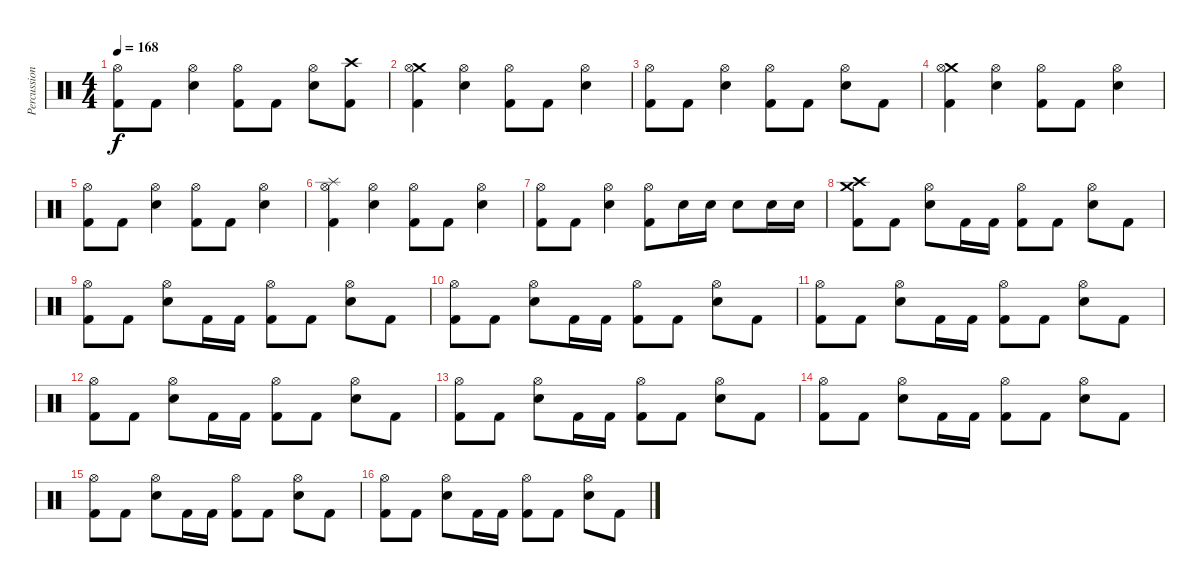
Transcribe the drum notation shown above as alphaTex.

\track ("Percussions" "Percussion") {instrument percussion}
\staff {score}
\articulation defaults
\ts (4 4)
\tempo 168
\clef neutral
\ks c
("Hi-Hat (open)" "Kick (hit) 2").8{dy f} "Kick (hit) 2".8 ("Hi-Hat (open)" "Snare (hit) 2").4 ("Hi-Hat (open)" "Kick (hit) 2").8 "Kick (hit) 2".8 ("Hi-Hat (open)" "Snare (hit) 2").8 ("Crash high (hit)" "Kick (hit) 2").8 |
("Crash medium (hit)" "Hi-Hat (open)" "Kick (hit) 2").4 ("Hi-Hat (open)" "Snare (hit) 2").4 ("Hi-Hat (open)" "Kick (hit) 2").8 "Kick (hit) 2".8 ("Hi-Hat (open)" "Snare (hit) 2").4 |
("Hi-Hat (open)" "Kick (hit) 2").8 "Kick (hit) 2".8 ("Hi-Hat (open)" "Snare (hit) 2").4 ("Hi-Hat (open)" "Kick (hit) 2").8 "Kick (hit) 2".8 ("Hi-Hat (open)" "Snare (hit) 2").8 "Kick (hit) 2".8 |
("Crash medium (hit)" "Hi-Hat (open)" "Kick (hit) 2").4 ("Hi-Hat (open)" "Snare (hit) 2").4 ("Hi-Hat (open)" "Kick (hit) 2").8 "Kick (hit) 2".8 ("Hi-Hat (open)" "Snare (hit) 2").4 |
("Hi-Hat (open)" "Kick (hit) 2").8 "Kick (hit) 2".8 ("Hi-Hat (open)" "Snare (hit) 2").4 ("Hi-Hat (open)" "Kick (hit) 2").8 "Kick (hit) 2".8 ("Hi-Hat (open)" "Snare (hit) 2").4 |
("Splash (hit)" "Hi-Hat (open)" "Kick (hit) 2").4 ("Hi-Hat (open)" "Snare (hit) 2").4 ("Hi-Hat (open)" "Kick (hit) 2").8 "Kick (hit) 2".8 ("Hi-Hat (open)" "Snare (hit) 2").4 |
("Hi-Hat (open)" "Kick (hit) 2").8 "Kick (hit) 2".8 ("Hi-Hat (open)" "Snare (hit) 2").4 ("Hi-Hat (open)" "Kick (hit) 2").8 "Snare (hit) 2".16 "Snare (hit) 2".16 "Snare (hit) 2".8 "Snare (hit) 2".16 "Snare (hit) 2".16 |
("Crash medium (hit)" "Crash high (hit)" "Kick (hit) 2").8 "Kick (hit) 2".8 ("Hi-Hat (open)" "Snare (hit) 2").8 "Kick (hit) 2".16 "Kick (hit) 2".16 ("Hi-Hat (open)" "Kick (hit) 2").8 "Kick (hit) 2".8 ("Hi-Hat (open)" "Snare (hit) 2").8 "Kick (hit) 2".8 |
("Hi-Hat (open)" "Kick (hit) 2").8 "Kick (hit) 2".8 ("Hi-Hat (open)" "Snare (hit) 2").8 "Kick (hit) 2".16 "Kick (hit) 2".16 ("Hi-Hat (open)" "Kick (hit) 2").8 "Kick (hit) 2".8 ("Hi-Hat (open)" "Snare (hit) 2").8 "Kick (hit) 2".8 |
("Hi-Hat (open)" "Kick (hit) 2").8 "Kick (hit) 2".8 ("Hi-Hat (open)" "Snare (hit) 2").8 "Kick (hit) 2".16 "Kick (hit) 2".16 ("Hi-Hat (open)" "Kick (hit) 2").8 "Kick (hit) 2".8 ("Hi-Hat (open)" "Snare (hit) 2").8 "Kick (hit) 2".8 |
("Hi-Hat (open)" "Kick (hit) 2").8 "Kick (hit) 2".8 ("Hi-Hat (open)" "Snare (hit) 2").8 "Kick (hit) 2".16 "Kick (hit) 2".16 ("Hi-Hat (open)" "Kick (hit) 2").8 "Kick (hit) 2".8 ("Hi-Hat (open)" "Snare (hit) 2").8 "Kick (hit) 2".8 |
("Hi-Hat (open)" "Kick (hit) 2").8 "Kick (hit) 2".8 ("Hi-Hat (open)" "Snare (hit) 2").8 "Kick (hit) 2".16 "Kick (hit) 2".16 ("Hi-Hat (open)" "Kick (hit) 2").8 "Kick (hit) 2".8 ("Hi-Hat (open)" "Snare (hit) 2").8 "Kick (hit) 2".8 |
("Hi-Hat (open)" "Kick (hit) 2").8 "Kick (hit) 2".8 ("Hi-Hat (open)" "Snare (hit) 2").8 "Kick (hit) 2".16 "Kick (hit) 2".16 ("Hi-Hat (open)" "Kick (hit) 2").8 "Kick (hit) 2".8 ("Hi-Hat (open)" "Snare (hit) 2").8 "Kick (hit) 2".8 |
("Hi-Hat (open)" "Kick (hit) 2").8 "Kick (hit) 2".8 ("Hi-Hat (open)" "Snare (hit) 2").8 "Kick (hit) 2".16 "Kick (hit) 2".16 ("Hi-Hat (open)" "Kick (hit) 2").8 "Kick (hit) 2".8 ("Hi-Hat (open)" "Snare (hit) 2").8 "Kick (hit) 2".8 |
("Hi-Hat (open)" "Kick (hit) 2").8 "Kick (hit) 2".8 ("Hi-Hat (open)" "Snare (hit) 2").8 "Kick (hit) 2".16 "Kick (hit) 2".16 ("Hi-Hat (open)" "Kick (hit) 2").8 "Kick (hit) 2".8 ("Hi-Hat (open)" "Snare (hit) 2").8 "Kick (hit) 2".8 |
("Hi-Hat (open)" "Kick (hit) 2").8 "Kick (hit) 2".8 ("Hi-Hat (open)" "Snare (hit) 2").8 "Kick (hit) 2".16 "Kick (hit) 2".16 ("Hi-Hat (open)" "Kick (hit) 2").8 "Kick (hit) 2".8 ("Hi-Hat (open)" "Snare (hit) 2").8 "Kick (hit) 2".8
